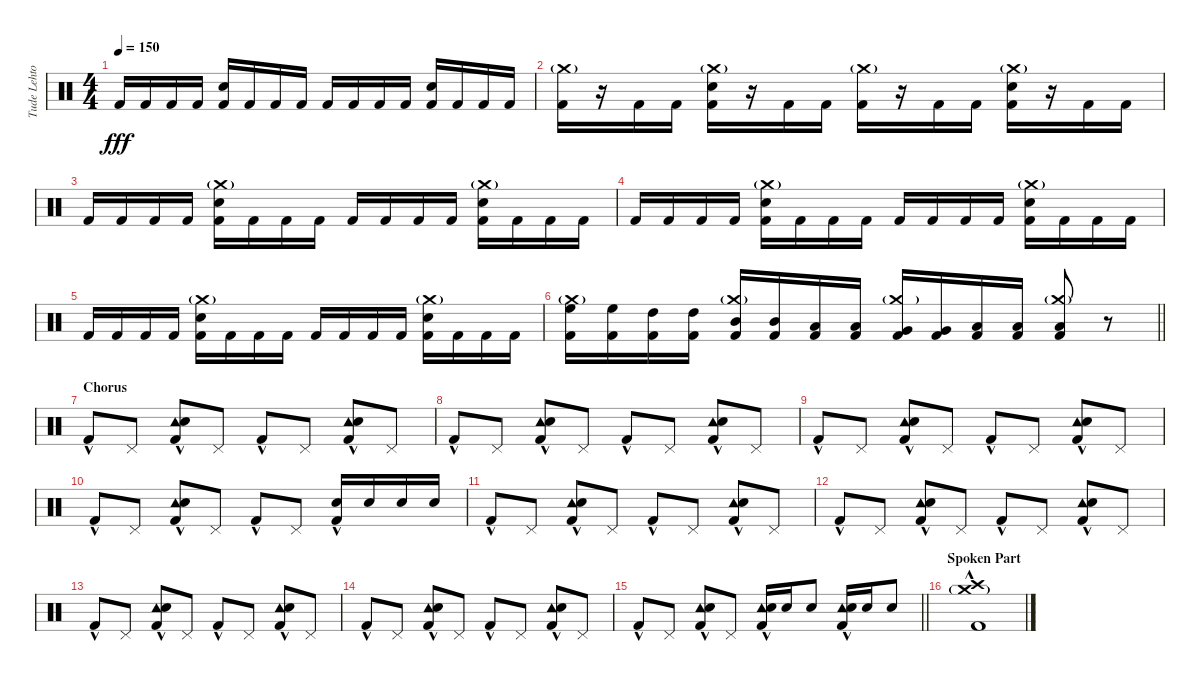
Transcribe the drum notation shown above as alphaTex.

\track ("Tude Lehtonen" "Tude Lehto") {instrument percussion}
\staff {score}
\articulation defaults
\ts (4 4)
\tempo 150
\clef neutral
\ks c "Kick (hit) 2".16{dy fff} "Kick (hit) 2".16 "Kick (hit) 2".16 "Kick (hit) 2".16
("Snare (hit) 2" "Kick (hit) 2").16 "Kick (hit) 2".16 "Kick (hit) 2".16 "Kick (hit) 2".16 "Kick (hit) 2".16 "Kick (hit) 2".16 "Kick (hit) 2".16 "Kick (hit) 2".16 ("Snare (hit) 2" "Kick (hit) 2").16 "Kick (hit) 2".16 "Kick (hit) 2".16 "Kick (hit) 2".16 |
("Crash medium (hit)"{g} "Kick (hit) 2").16 r.16 "Kick (hit) 2".16 "Kick (hit) 2".16 ("Crash medium (hit)"{g} "Snare (hit) 2" "Kick (hit) 2").16 r.16 "Kick (hit) 2".16 "Kick (hit) 2".16 ("Crash medium (hit)"{g} "Kick (hit) 2").16 r.16 "Kick (hit) 2".16 "Kick (hit) 2".16 ("Crash medium (hit)"{g} "Snare (hit) 2" "Kick (hit) 2").16 r.16 "Kick (hit) 2".16 "Kick (hit) 2".16 |
"Kick (hit) 2".16 "Kick (hit) 2".16 "Kick (hit) 2".16 "Kick (hit) 2".16 ("Crash medium (hit)"{g} "Snare (hit) 2" "Kick (hit) 2").16 "Kick (hit) 2".16 "Kick (hit) 2".16 "Kick (hit) 2".16 "Kick (hit) 2".16 "Kick (hit) 2".16 "Kick (hit) 2".16 "Kick (hit) 2".16 ("Crash medium (hit)"{g} "Snare (hit) 2" "Kick (hit) 2").16 "Kick (hit) 2".16 "Kick (hit) 2".16 "Kick (hit) 2".16 |
"Kick (hit) 2".16 "Kick (hit) 2".16 "Kick (hit) 2".16 "Kick (hit) 2".16 ("Crash medium (hit)"{g} "Snare (hit) 2" "Kick (hit) 2").16 "Kick (hit) 2".16 "Kick (hit) 2".16 "Kick (hit) 2".16 "Kick (hit) 2".16 "Kick (hit) 2".16 "Kick (hit) 2".16 "Kick (hit) 2".16 ("Crash medium (hit)"{g} "Snare (hit) 2" "Kick (hit) 2").16 "Kick (hit) 2".16 "Kick (hit) 2".16 "Kick (hit) 2".16 |
"Kick (hit) 2".16 "Kick (hit) 2".16 "Kick (hit) 2".16 "Kick (hit) 2".16 ("Crash medium (hit)"{g} "Snare (hit) 2" "Kick (hit) 2").16 "Kick (hit) 2".16 "Kick (hit) 2".16 "Kick (hit) 2".16 "Kick (hit) 2".16 "Kick (hit) 2".16 "Kick (hit) 2".16 "Kick (hit) 2".16 ("Crash medium (hit)"{g} "Snare (hit) 2" "Kick (hit) 2").16 "Kick (hit) 2".16 "Kick (hit) 2".16 "Kick (hit) 2".16 |
\barLineRight lightlight
("Crash medium (hit)"{g} "High Floor Tom (hit)" "Kick (hit) 2").16 ("High Floor Tom (hit)" "Kick (hit) 2").16 ("High Tom (hit)" "Kick (hit) 2").16 ("High Tom (hit)" "Kick (hit) 2").16 ("Crash medium (hit)"{g} "Mid Tom (hit)" "Kick (hit) 2").16 ("Mid Tom (hit)" "Kick (hit) 2").16 ("Low Tom (hit)" "Kick (hit) 2").16 ("Low Tom (hit)" "Kick (hit) 2").16 ("Crash medium (hit)"{g} "Very Low Tom (hit)" "Kick (hit) 2").16 ("Very Low Tom (hit)" "Kick (hit) 2").16 ("Low Floor Tom (hit)" "Kick (hit) 2").16 ("Low Floor Tom (hit)" "Kick (hit) 2").16 ("Crash medium (hit)"{g} "Low Floor Tom (hit)" "Kick (hit) 2").8 r.8 |
\section ("" "Chorus")
"Kick (hit) 2"{hac}.8 "Pedal Hi-Hat (hit)".8 ("Tambourine (hit)" "Snare (hit) 2" "Kick (hit) 2"{hac}).8 "Pedal Hi-Hat (hit)".8 "Kick (hit) 2"{hac}.8 "Pedal Hi-Hat (hit)".8 ("Tambourine (hit)" "Snare (hit) 2" "Kick (hit) 2"{hac}).8 "Pedal Hi-Hat (hit)".8 |
"Kick (hit) 2"{hac}.8 "Pedal Hi-Hat (hit)".8 ("Tambourine (hit)" "Snare (hit) 2" "Kick (hit) 2"{hac}).8 "Pedal Hi-Hat (hit)".8 "Kick (hit) 2"{hac}.8 "Pedal Hi-Hat (hit)".8 ("Tambourine (hit)" "Snare (hit) 2" "Kick (hit) 2"{hac}).8 "Pedal Hi-Hat (hit)".8 |
"Kick (hit) 2"{hac}.8 "Pedal Hi-Hat (hit)".8 ("Tambourine (hit)" "Snare (hit) 2" "Kick (hit) 2"{hac}).8 "Pedal Hi-Hat (hit)".8 "Kick (hit) 2"{hac}.8 "Pedal Hi-Hat (hit)".8 ("Tambourine (hit)" "Snare (hit) 2" "Kick (hit) 2"{hac}).8 "Pedal Hi-Hat (hit)".8 |
"Kick (hit) 2"{hac}.8 "Pedal Hi-Hat (hit)".8 ("Tambourine (hit)" "Snare (hit) 2" "Kick (hit) 2"{hac}).8 "Pedal Hi-Hat (hit)".8 "Kick (hit) 2"{hac}.8 "Pedal Hi-Hat (hit)".8 ("Snare (hit) 2" "Kick (hit) 2"{hac}).16 "Snare (hit) 2".16 "Snare (hit) 2".16 "Snare (hit) 2".16 |
"Kick (hit) 2"{hac}.8 "Pedal Hi-Hat (hit)".8 ("Tambourine (hit)" "Snare (hit) 2" "Kick (hit) 2"{hac}).8 "Pedal Hi-Hat (hit)".8 "Kick (hit) 2"{hac}.8 "Pedal Hi-Hat (hit)".8 ("Tambourine (hit)" "Snare (hit) 2" "Kick (hit) 2"{hac}).8 "Pedal Hi-Hat (hit)".8 |
"Kick (hit) 2"{hac}.8 "Pedal Hi-Hat (hit)".8 ("Tambourine (hit)" "Snare (hit) 2" "Kick (hit) 2"{hac}).8 "Pedal Hi-Hat (hit)".8 "Kick (hit) 2"{hac}.8 "Pedal Hi-Hat (hit)".8 ("Tambourine (hit)" "Snare (hit) 2" "Kick (hit) 2"{hac}).8 "Pedal Hi-Hat (hit)".8 |
"Kick (hit) 2"{hac}.8 "Pedal Hi-Hat (hit)".8 ("Tambourine (hit)" "Snare (hit) 2" "Kick (hit) 2"{hac}).8 "Pedal Hi-Hat (hit)".8 "Kick (hit) 2"{hac}.8 "Pedal Hi-Hat (hit)".8 ("Tambourine (hit)" "Snare (hit) 2" "Kick (hit) 2"{hac}).8 "Pedal Hi-Hat (hit)".8 |
"Kick (hit) 2"{hac}.8 "Pedal Hi-Hat (hit)".8 ("Tambourine (hit)" "Snare (hit) 2" "Kick (hit) 2"{hac}).8 "Pedal Hi-Hat (hit)".8 "Kick (hit) 2"{hac}.8 "Pedal Hi-Hat (hit)".8 ("Tambourine (hit)" "Snare (hit) 2" "Kick (hit) 2"{hac}).8 "Pedal Hi-Hat (hit)".8 |
\barLineRight lightlight "Kick (hit) 2"{hac}.8 "Pedal Hi-Hat (hit)".8
("Tambourine (hit)" "Snare (hit) 2" "Kick (hit) 2"{hac}).8 "Pedal Hi-Hat (hit)".8 ("Tambourine (hit)" "Snare (hit) 2" "Kick (hit) 2"{hac}).16 "Snare (hit) 2".16 "Snare (hit) 2".8 ("Tambourine (hit)" "Snare (hit) 2" "Kick (hit) 2"{hac}).16 "Snare (hit) 2".16 "Snare (hit) 2".8 |
\section ("" "Spoken Part")
("Crash medium (hit)"{g} "Crash high (hit)" "Kick (hit) 2"{hac}).1
